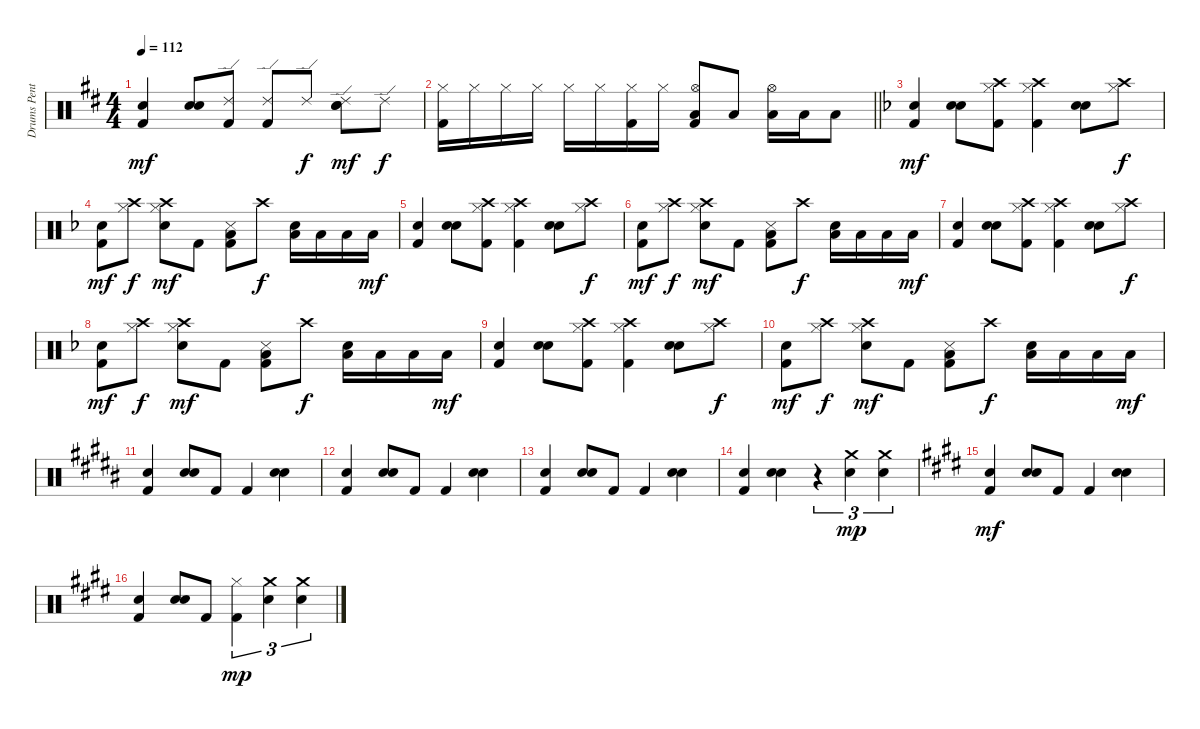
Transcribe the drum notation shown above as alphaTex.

\track ("Drums Pentti Glan" "Drums Pent") {instrument percussion}
\staff {score}
\articulation defaults
\ts (4 4)
\tempo 112
\clef neutral
\ks d
("Hand Clap (hit)" "Kick (hit) 2").4{dy mf} ("Electric Snare (hit)" "Snare (hit) 2").8 ("Ride (edge) 2" "Kick (hit) 2").8 ("Ride (edge) 2" "Kick (hit) 2").8 "Ride (edge) 2".8{dy f} ("Ride (edge) 2" "Electric Snare (hit)" "Snare (hit) 2").8{dy mf} "Ride (edge) 2".8{dy f} |
\barLineRight lightlight
("Hi-Hat (closed)" "Kick (hit) 2").16 "Hi-Hat (closed)".16 "Hi-Hat (closed)".16 "Hi-Hat (closed)".16 "Hi-Hat (closed)".16 "Hi-Hat (closed)".16 ("Hi-Hat (closed)" "Kick (hit) 2").16 "Hi-Hat (closed)".16 ("Hi-Hat (open)" "Low Tom (hit)" "Kick (hit) 2").8 "Low Tom (hit)".8 ("Hi-Hat (open)" "Low Tom (hit)").16 "Low Tom (hit)".16 "Low Tom (hit)".8 |
\ks f
("Hand Clap (hit)" "Kick (hit) 2").4{dy mf} ("Electric Snare (hit)" "Snare (hit) 2").8 ("Crash high (hit)" "Hi-Hat (closed)" "Kick (hit) 2").8 ("Crash high (hit)" "Hi-Hat (closed)" "Kick (hit) 2").4 ("Electric Snare (hit)" "Snare (hit) 2").8 ("Crash high (hit)" "Hi-Hat (closed)").8{dy f} |
("Hand Clap (hit)" "Kick (hit) 2").8{dy mf} ("Crash high (hit)" "Hi-Hat (closed)").8{dy f} ("Crash high (hit)" "Hi-Hat (closed)" "Snare (hit) 2").8{dy mf} "Kick (hit) 2".8 ("Snare (side stick) 3" "Low Tom (hit)" "Kick (hit) 2").8 "Crash high (hit)".8{dy f} ("Electric Snare (hit)" "Low Tom (hit)").16 "Low Tom (hit)".16 "Low Tom (hit)".16 "Low Tom (hit)".16{dy mf} |
("Hand Clap (hit)" "Kick (hit) 2").4 ("Electric Snare (hit)" "Snare (hit) 2").8 ("Crash high (hit)" "Hi-Hat (closed)" "Kick (hit) 2").8 ("Crash high (hit)" "Hi-Hat (closed)" "Kick (hit) 2").4 ("Electric Snare (hit)" "Snare (hit) 2").8 ("Crash high (hit)" "Hi-Hat (closed)").8{dy f} |
("Hand Clap (hit)" "Kick (hit) 2").8{dy mf} ("Crash high (hit)" "Hi-Hat (closed)").8{dy f} ("Crash high (hit)" "Hi-Hat (closed)" "Snare (hit) 2").8{dy mf} "Kick (hit) 2".8 ("Snare (side stick) 3" "Low Tom (hit)" "Kick (hit) 2").8 "Crash high (hit)".8{dy f} ("Electric Snare (hit)" "Low Tom (hit)").16 "Low Tom (hit)".16 "Low Tom (hit)".16 "Low Tom (hit)".16{dy mf} |
("Hand Clap (hit)" "Kick (hit) 2").4 ("Electric Snare (hit)" "Snare (hit) 2").8 ("Crash high (hit)" "Hi-Hat (closed)" "Kick (hit) 2").8 ("Crash high (hit)" "Hi-Hat (closed)" "Kick (hit) 2").4 ("Electric Snare (hit)" "Snare (hit) 2").8 ("Crash high (hit)" "Hi-Hat (closed)").8{dy f} |
("Hand Clap (hit)" "Kick (hit) 2").8{dy mf} ("Crash high (hit)" "Hi-Hat (closed)").8{dy f} ("Crash high (hit)" "Hi-Hat (closed)" "Snare (hit) 2").8{dy mf} "Kick (hit) 2".8 ("Snare (side stick) 3" "Low Tom (hit)" "Kick (hit) 2").8 "Crash high (hit)".8{dy f} ("Electric Snare (hit)" "Low Tom (hit)").16 "Low Tom (hit)".16 "Low Tom (hit)".16 "Low Tom (hit)".16{dy mf} |
("Hand Clap (hit)" "Kick (hit) 2").4 ("Electric Snare (hit)" "Snare (hit) 2").8 ("Crash high (hit)" "Hi-Hat (closed)" "Kick (hit) 2").8 ("Crash high (hit)" "Hi-Hat (closed)" "Kick (hit) 2").4 ("Electric Snare (hit)" "Snare (hit) 2").8 ("Crash high (hit)" "Hi-Hat (closed)").8{dy f} |
("Hand Clap (hit)" "Kick (hit) 2").8{dy mf} ("Crash high (hit)" "Hi-Hat (closed)").8{dy f} ("Crash high (hit)" "Hi-Hat (closed)" "Snare (hit) 2").8{dy mf} "Kick (hit) 2".8 ("Snare (side stick) 3" "Low Tom (hit)" "Kick (hit) 2").8 "Crash high (hit)".8{dy f} ("Electric Snare (hit)" "Low Tom (hit)").16 "Low Tom (hit)".16 "Low Tom (hit)".16 "Low Tom (hit)".16{dy mf} |
\ks b
("Hand Clap (hit)" "Kick (hit) 2").4 ("Electric Snare (hit)" "Snare (hit) 2").8 "Kick (hit) 2".8 "Kick (hit) 2".4 ("Electric Snare (hit)" "Snare (hit) 2").4 |
("Hand Clap (hit)" "Kick (hit) 2").4 ("Electric Snare (hit)" "Snare (hit) 2").8 "Kick (hit) 2".8 "Kick (hit) 2".4 ("Electric Snare (hit)" "Snare (hit) 2").4 |
("Hand Clap (hit)" "Kick (hit) 2").4 ("Electric Snare (hit)" "Snare (hit) 2").8 "Kick (hit) 2".8 "Kick (hit) 2".4 ("Electric Snare (hit)" "Snare (hit) 2").4 |
("Hand Clap (hit)" "Kick (hit) 2").4 ("Electric Snare (hit)" "Snare (hit) 2").4 r.4{tu (3 2)} ("Crash medium (hit)" "Electric Snare (hit)").4{tu (3 2) dy mp} ("Crash medium (hit)" "Electric Snare (hit)").4{tu (3 2)} |
\ks e
("Hand Clap (hit)" "Kick (hit) 2").4{dy mf} ("Electric Snare (hit)" "Snare (hit) 2").8 "Kick (hit) 2".8 "Kick (hit) 2".4 ("Electric Snare (hit)" "Snare (hit) 2").4 |
("Hand Clap (hit)" "Kick (hit) 2").4 ("Electric Snare (hit)" "Snare (hit) 2").8 "Kick (hit) 2".8 ("Hi-Hat (closed)" "Kick (hit) 2").4{tu (3 2) dy mp} ("Crash medium (hit)" "Electric Snare (hit)").4{tu (3 2)} ("Crash medium (hit)" "Electric Snare (hit)").4{tu (3 2)}
